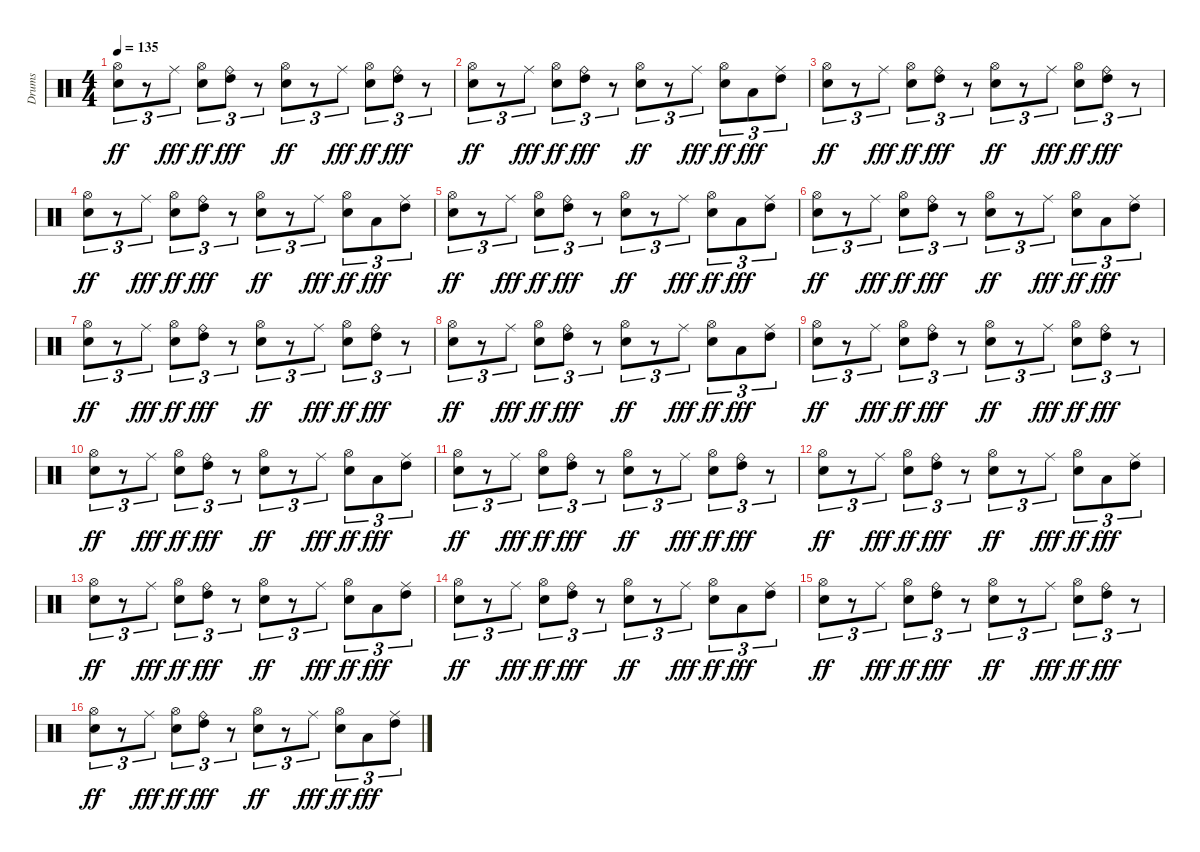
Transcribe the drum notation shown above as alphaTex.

\track ("Drums" "Drums") {instrument percussion}
\staff {score}
\articulation defaults
\ts (4 4)
\tempo 135
\clef neutral
\ks c
("Electric Snare (hit)" "Hi-Hat (open)").8{tu (3 2) dy ff} r.8{tu (3 2)} "Ride (middle)".8{tu (3 2) dy fff} ("Electric Snare (hit)" "Hi-Hat (open)").8{tu (3 2) dy ff} ("Ride (bell)" "High Tom (hit)").8{tu (3 2) dy fff} r.8{tu (3 2)} ("Electric Snare (hit)" "Hi-Hat (open)").8{tu (3 2) dy ff} r.8{tu (3 2)} "Ride (middle)".8{tu (3 2) dy fff} ("Electric Snare (hit)" "Hi-Hat (open)").8{tu (3 2) dy ff} ("Ride (bell)" "High Tom (hit)").8{tu (3 2) dy fff} r.8{tu (3 2)} |
("Electric Snare (hit)" "Hi-Hat (open)").8{tu (3 2) dy ff} r.8{tu (3 2)} "Ride (middle)".8{tu (3 2) dy fff} ("Electric Snare (hit)" "Hi-Hat (open)").8{tu (3 2) dy ff} ("Ride (bell)" "High Tom (hit)").8{tu (3 2) dy fff} r.8{tu (3 2)} ("Electric Snare (hit)" "Hi-Hat (open)").8{tu (3 2) dy ff} r.8{tu (3 2)} "Ride (middle)".8{tu (3 2) dy fff} ("Electric Snare (hit)" "Hi-Hat (open)").8{tu (3 2) dy ff} "Low Tom (hit)".8{tu (3 2) dy fff} ("High Tom (hit)" "Ride (middle)").8{tu (3 2)} |
("Electric Snare (hit)" "Hi-Hat (open)").8{tu (3 2) dy ff} r.8{tu (3 2)} "Ride (middle)".8{tu (3 2) dy fff} ("Electric Snare (hit)" "Hi-Hat (open)").8{tu (3 2) dy ff} ("Ride (bell)" "High Tom (hit)").8{tu (3 2) dy fff} r.8{tu (3 2)} ("Electric Snare (hit)" "Hi-Hat (open)").8{tu (3 2) dy ff} r.8{tu (3 2)} "Ride (middle)".8{tu (3 2) dy fff} ("Electric Snare (hit)" "Hi-Hat (open)").8{tu (3 2) dy ff} ("Ride (bell)" "High Tom (hit)").8{tu (3 2) dy fff} r.8{tu (3 2)} |
("Electric Snare (hit)" "Hi-Hat (open)").8{tu (3 2) dy ff} r.8{tu (3 2)} "Ride (middle)".8{tu (3 2) dy fff} ("Electric Snare (hit)" "Hi-Hat (open)").8{tu (3 2) dy ff} ("Ride (bell)" "High Tom (hit)").8{tu (3 2) dy fff} r.8{tu (3 2)} ("Electric Snare (hit)" "Hi-Hat (open)").8{tu (3 2) dy ff} r.8{tu (3 2)} "Ride (middle)".8{tu (3 2) dy fff} ("Electric Snare (hit)" "Hi-Hat (open)").8{tu (3 2) dy ff} "Low Tom (hit)".8{tu (3 2) dy fff} ("High Tom (hit)" "Ride (middle)").8{tu (3 2)} |
("Electric Snare (hit)" "Hi-Hat (open)").8{tu (3 2) dy ff} r.8{tu (3 2)} "Ride (middle)".8{tu (3 2) dy fff} ("Electric Snare (hit)" "Hi-Hat (open)").8{tu (3 2) dy ff} ("Ride (bell)" "High Tom (hit)").8{tu (3 2) dy fff} r.8{tu (3 2)} ("Electric Snare (hit)" "Hi-Hat (open)").8{tu (3 2) dy ff} r.8{tu (3 2)} "Ride (middle)".8{tu (3 2) dy fff} ("Electric Snare (hit)" "Hi-Hat (open)").8{tu (3 2) dy ff} "Low Tom (hit)".8{tu (3 2) dy fff} ("High Tom (hit)" "Ride (middle)").8{tu (3 2)} |
("Electric Snare (hit)" "Hi-Hat (open)").8{tu (3 2) dy ff} r.8{tu (3 2)} "Ride (middle)".8{tu (3 2) dy fff} ("Electric Snare (hit)" "Hi-Hat (open)").8{tu (3 2) dy ff} ("Ride (bell)" "High Tom (hit)").8{tu (3 2) dy fff} r.8{tu (3 2)} ("Electric Snare (hit)" "Hi-Hat (open)").8{tu (3 2) dy ff} r.8{tu (3 2)} "Ride (middle)".8{tu (3 2) dy fff} ("Electric Snare (hit)" "Hi-Hat (open)").8{tu (3 2) dy ff} "Low Tom (hit)".8{tu (3 2) dy fff} ("High Tom (hit)" "Ride (middle)").8{tu (3 2)} |
("Electric Snare (hit)" "Hi-Hat (open)").8{tu (3 2) dy ff} r.8{tu (3 2)} "Ride (middle)".8{tu (3 2) dy fff} ("Electric Snare (hit)" "Hi-Hat (open)").8{tu (3 2) dy ff} ("Ride (bell)" "High Tom (hit)").8{tu (3 2) dy fff} r.8{tu (3 2)} ("Electric Snare (hit)" "Hi-Hat (open)").8{tu (3 2) dy ff} r.8{tu (3 2)} "Ride (middle)".8{tu (3 2) dy fff} ("Electric Snare (hit)" "Hi-Hat (open)").8{tu (3 2) dy ff} ("Ride (bell)" "High Tom (hit)").8{tu (3 2) dy fff} r.8{tu (3 2)} |
("Electric Snare (hit)" "Hi-Hat (open)").8{tu (3 2) dy ff} r.8{tu (3 2)} "Ride (middle)".8{tu (3 2) dy fff} ("Electric Snare (hit)" "Hi-Hat (open)").8{tu (3 2) dy ff} ("Ride (bell)" "High Tom (hit)").8{tu (3 2) dy fff} r.8{tu (3 2)} ("Electric Snare (hit)" "Hi-Hat (open)").8{tu (3 2) dy ff} r.8{tu (3 2)} "Ride (middle)".8{tu (3 2) dy fff} ("Electric Snare (hit)" "Hi-Hat (open)").8{tu (3 2) dy ff} "Low Tom (hit)".8{tu (3 2) dy fff} ("High Tom (hit)" "Ride (middle)").8{tu (3 2)} |
("Electric Snare (hit)" "Hi-Hat (open)").8{tu (3 2) dy ff} r.8{tu (3 2)} "Ride (middle)".8{tu (3 2) dy fff} ("Electric Snare (hit)" "Hi-Hat (open)").8{tu (3 2) dy ff} ("Ride (bell)" "High Tom (hit)").8{tu (3 2) dy fff} r.8{tu (3 2)} ("Electric Snare (hit)" "Hi-Hat (open)").8{tu (3 2) dy ff} r.8{tu (3 2)} "Ride (middle)".8{tu (3 2) dy fff} ("Electric Snare (hit)" "Hi-Hat (open)").8{tu (3 2) dy ff} ("Ride (bell)" "High Tom (hit)").8{tu (3 2) dy fff} r.8{tu (3 2)} |
("Electric Snare (hit)" "Hi-Hat (open)").8{tu (3 2) dy ff} r.8{tu (3 2)} "Ride (middle)".8{tu (3 2) dy fff} ("Electric Snare (hit)" "Hi-Hat (open)").8{tu (3 2) dy ff} ("Ride (bell)" "High Tom (hit)").8{tu (3 2) dy fff} r.8{tu (3 2)} ("Electric Snare (hit)" "Hi-Hat (open)").8{tu (3 2) dy ff} r.8{tu (3 2)} "Ride (middle)".8{tu (3 2) dy fff} ("Electric Snare (hit)" "Hi-Hat (open)").8{tu (3 2) dy ff} "Low Tom (hit)".8{tu (3 2) dy fff} ("High Tom (hit)" "Ride (middle)").8{tu (3 2)} |
("Electric Snare (hit)" "Hi-Hat (open)").8{tu (3 2) dy ff} r.8{tu (3 2)} "Ride (middle)".8{tu (3 2) dy fff} ("Electric Snare (hit)" "Hi-Hat (open)").8{tu (3 2) dy ff} ("Ride (bell)" "High Tom (hit)").8{tu (3 2) dy fff} r.8{tu (3 2)} ("Electric Snare (hit)" "Hi-Hat (open)").8{tu (3 2) dy ff} r.8{tu (3 2)} "Ride (middle)".8{tu (3 2) dy fff} ("Electric Snare (hit)" "Hi-Hat (open)").8{tu (3 2) dy ff} ("Ride (bell)" "High Tom (hit)").8{tu (3 2) dy fff} r.8{tu (3 2)} |
("Electric Snare (hit)" "Hi-Hat (open)").8{tu (3 2) dy ff} r.8{tu (3 2)} "Ride (middle)".8{tu (3 2) dy fff} ("Electric Snare (hit)" "Hi-Hat (open)").8{tu (3 2) dy ff} ("Ride (bell)" "High Tom (hit)").8{tu (3 2) dy fff} r.8{tu (3 2)} ("Electric Snare (hit)" "Hi-Hat (open)").8{tu (3 2) dy ff} r.8{tu (3 2)} "Ride (middle)".8{tu (3 2) dy fff} ("Electric Snare (hit)" "Hi-Hat (open)").8{tu (3 2) dy ff} "Low Tom (hit)".8{tu (3 2) dy fff} ("High Tom (hit)" "Ride (middle)").8{tu (3 2)} |
("Electric Snare (hit)" "Hi-Hat (open)").8{tu (3 2) dy ff} r.8{tu (3 2)} "Ride (middle)".8{tu (3 2) dy fff} ("Electric Snare (hit)" "Hi-Hat (open)").8{tu (3 2) dy ff} ("Ride (bell)" "High Tom (hit)").8{tu (3 2) dy fff} r.8{tu (3 2)} ("Electric Snare (hit)" "Hi-Hat (open)").8{tu (3 2) dy ff} r.8{tu (3 2)} "Ride (middle)".8{tu (3 2) dy fff} ("Electric Snare (hit)" "Hi-Hat (open)").8{tu (3 2) dy ff} "Low Tom (hit)".8{tu (3 2) dy fff} ("High Tom (hit)" "Ride (middle)").8{tu (3 2)} |
("Electric Snare (hit)" "Hi-Hat (open)").8{tu (3 2) dy ff} r.8{tu (3 2)} "Ride (middle)".8{tu (3 2) dy fff} ("Electric Snare (hit)" "Hi-Hat (open)").8{tu (3 2) dy ff} ("Ride (bell)" "High Tom (hit)").8{tu (3 2) dy fff} r.8{tu (3 2)} ("Electric Snare (hit)" "Hi-Hat (open)").8{tu (3 2) dy ff} r.8{tu (3 2)} "Ride (middle)".8{tu (3 2) dy fff} ("Electric Snare (hit)" "Hi-Hat (open)").8{tu (3 2) dy ff} "Low Tom (hit)".8{tu (3 2) dy fff} ("High Tom (hit)" "Ride (middle)").8{tu (3 2)} |
("Electric Snare (hit)" "Hi-Hat (open)").8{tu (3 2) dy ff} r.8{tu (3 2)} "Ride (middle)".8{tu (3 2) dy fff} ("Electric Snare (hit)" "Hi-Hat (open)").8{tu (3 2) dy ff} ("Ride (bell)" "High Tom (hit)").8{tu (3 2) dy fff} r.8{tu (3 2)} ("Electric Snare (hit)" "Hi-Hat (open)").8{tu (3 2) dy ff} r.8{tu (3 2)} "Ride (middle)".8{tu (3 2) dy fff} ("Electric Snare (hit)" "Hi-Hat (open)").8{tu (3 2) dy ff} ("Ride (bell)" "High Tom (hit)").8{tu (3 2) dy fff} r.8{tu (3 2)} |
("Electric Snare (hit)" "Hi-Hat (open)").8{tu (3 2) dy ff} r.8{tu (3 2)} "Ride (middle)".8{tu (3 2) dy fff} ("Electric Snare (hit)" "Hi-Hat (open)").8{tu (3 2) dy ff} ("Ride (bell)" "High Tom (hit)").8{tu (3 2) dy fff} r.8{tu (3 2)} ("Electric Snare (hit)" "Hi-Hat (open)").8{tu (3 2) dy ff} r.8{tu (3 2)} "Ride (middle)".8{tu (3 2) dy fff} ("Electric Snare (hit)" "Hi-Hat (open)").8{tu (3 2) dy ff} "Low Tom (hit)".8{tu (3 2) dy fff} ("High Tom (hit)" "Ride (middle)").8{tu (3 2)}
